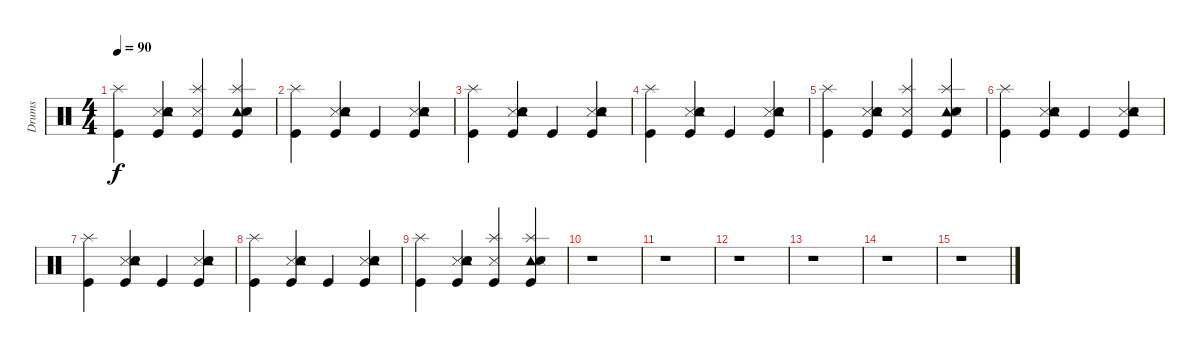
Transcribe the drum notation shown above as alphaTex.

\track ("Drums" "Drums") {instrument percussion}
\staff {score}
\articulation defaults
\ts (4 4)
\tempo 90
\clef neutral
\ks c
("Kick (hit)" "Splash (hit)").4{dy f} ("Metronome (hit)" "Tambourine (hit)" "Kick (hit)" "Hand Clap (hit)").4 ("Kick (hit)" "Splash (hit)" "Metronome (hit)").4 ("Splash (hit)" "Tambourine (hit)" "Kick (hit)" "Metronome (hit)" "Hand Clap (hit)").4 |
("Kick (hit)" "Splash (hit)").4 ("Metronome (hit)" "Tambourine (hit)" "Kick (hit)" "Hand Clap (hit)").4 "Kick (hit)".4 ("Metronome (hit)" "Tambourine (hit)" "Kick (hit)" "Hand Clap (hit)").4 |
("Kick (hit)" "Splash (hit)").4 ("Metronome (hit)" "Tambourine (hit)" "Kick (hit)" "Hand Clap (hit)").4 "Kick (hit)".4 ("Metronome (hit)" "Tambourine (hit)" "Kick (hit)" "Hand Clap (hit)").4 |
("Kick (hit)" "Splash (hit)").4 ("Metronome (hit)" "Tambourine (hit)" "Kick (hit)" "Hand Clap (hit)").4 "Kick (hit)".4 ("Metronome (hit)" "Tambourine (hit)" "Kick (hit)" "Hand Clap (hit)").4 |
("Kick (hit)" "Splash (hit)").4 ("Metronome (hit)" "Tambourine (hit)" "Kick (hit)" "Hand Clap (hit)").4 ("Kick (hit)" "Splash (hit)" "Metronome (hit)").4 ("Splash (hit)" "Tambourine (hit)" "Kick (hit)" "Metronome (hit)" "Hand Clap (hit)").4 |
("Kick (hit)" "Splash (hit)").4 ("Metronome (hit)" "Tambourine (hit)" "Kick (hit)" "Hand Clap (hit)").4 "Kick (hit)".4 ("Metronome (hit)" "Tambourine (hit)" "Kick (hit)" "Hand Clap (hit)").4 |
("Kick (hit)" "Splash (hit)").4 ("Metronome (hit)" "Tambourine (hit)" "Kick (hit)" "Hand Clap (hit)").4 "Kick (hit)".4 ("Metronome (hit)" "Tambourine (hit)" "Kick (hit)" "Hand Clap (hit)").4 |
("Kick (hit)" "Splash (hit)").4 ("Metronome (hit)" "Tambourine (hit)" "Kick (hit)" "Hand Clap (hit)").4 "Kick (hit)".4 ("Metronome (hit)" "Tambourine (hit)" "Kick (hit)" "Hand Clap (hit)").4 |
("Kick (hit)" "Splash (hit)").4 ("Metronome (hit)" "Tambourine (hit)" "Kick (hit)" "Hand Clap (hit)").4 ("Kick (hit)" "Splash (hit)" "Metronome (hit)").4 ("Splash (hit)" "Tambourine (hit)" "Kick (hit)" "Metronome (hit)" "Hand Clap (hit)").4 |
r.1 |
r.1 |
r.1 |
r.1 |
r.1 |
r.1
